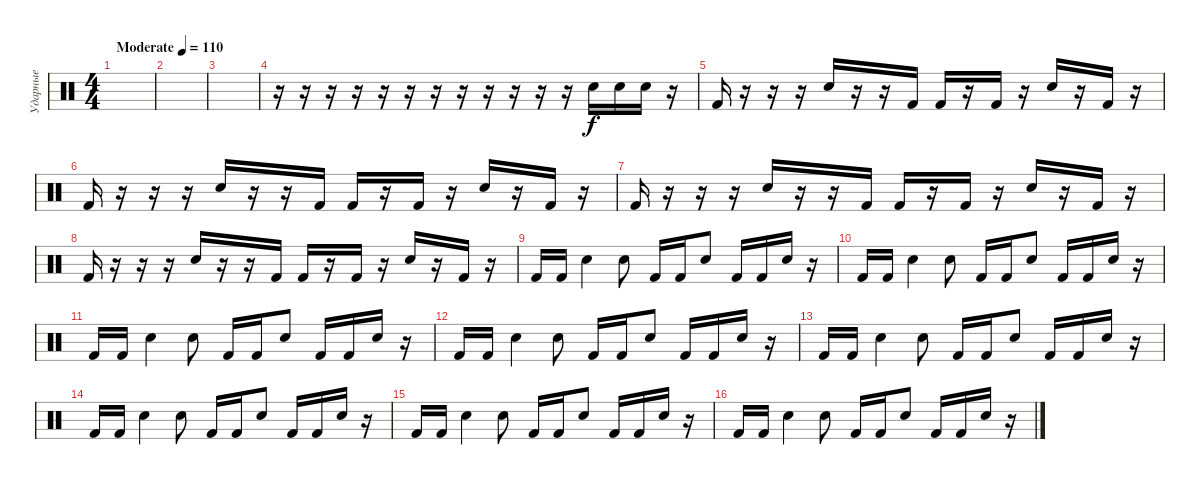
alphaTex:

\track ("Ударные" "Ударные") {instrument percussion}
\staff {score}
\articulation defaults
\ts (4 4)
\tempo (110 "Moderate")
\clef neutral
\ks c
|
|
|
r.16 r.16 r.16 r.16 r.16 r.16 r.16 r.16 r.16 r.16 r.16 r.16 "Electric Snare (hit)".16 "Electric Snare (hit)".16 "Electric Snare (hit)".16 r.16 |
"Kick (hit) 2".16 r.16 r.16 r.16 "Electric Snare (hit)".16 r.16 r.16 "Kick (hit) 2".16 "Kick (hit) 2".16 r.16 "Kick (hit) 2".16 r.16 "Electric Snare (hit)".16 r.16 "Kick (hit) 2".16 r.16 |
"Kick (hit) 2".16 r.16 r.16 r.16 "Electric Snare (hit)".16 r.16 r.16 "Kick (hit) 2".16 "Kick (hit) 2".16 r.16 "Kick (hit) 2".16 r.16 "Electric Snare (hit)".16 r.16 "Kick (hit) 2".16 r.16 |
"Kick (hit) 2".16 r.16 r.16 r.16 "Electric Snare (hit)".16 r.16 r.16 "Kick (hit) 2".16 "Kick (hit) 2".16 r.16 "Kick (hit) 2".16 r.16 "Electric Snare (hit)".16 r.16 "Kick (hit) 2".16 r.16 |
"Kick (hit) 2".16 r.16 r.16 r.16 "Electric Snare (hit)".16 r.16 r.16 "Kick (hit) 2".16 "Kick (hit) 2".16 r.16 "Kick (hit) 2".16 r.16 "Electric Snare (hit)".16 r.16 "Kick (hit) 2".16 r.16 |
"Kick (hit) 2".16 "Kick (hit) 2".16 "Electric Snare (hit)".4 "Electric Snare (hit)".8 "Kick (hit) 2".16 "Kick (hit) 2".16 "Electric Snare (hit)".8 "Kick (hit) 2".16 "Kick (hit) 2".16 "Electric Snare (hit)".16 r.16 |
"Kick (hit) 2".16 "Kick (hit) 2".16 "Electric Snare (hit)".4 "Electric Snare (hit)".8 "Kick (hit) 2".16 "Kick (hit) 2".16 "Electric Snare (hit)".8 "Kick (hit) 2".16 "Kick (hit) 2".16 "Electric Snare (hit)".16 r.16 |
"Kick (hit) 2".16 "Kick (hit) 2".16 "Electric Snare (hit)".4 "Electric Snare (hit)".8 "Kick (hit) 2".16 "Kick (hit) 2".16 "Electric Snare (hit)".8 "Kick (hit) 2".16 "Kick (hit) 2".16 "Electric Snare (hit)".16 r.16 |
"Kick (hit) 2".16 "Kick (hit) 2".16 "Electric Snare (hit)".4 "Electric Snare (hit)".8 "Kick (hit) 2".16 "Kick (hit) 2".16 "Electric Snare (hit)".8 "Kick (hit) 2".16 "Kick (hit) 2".16 "Electric Snare (hit)".16 r.16 |
"Kick (hit) 2".16 "Kick (hit) 2".16 "Electric Snare (hit)".4 "Electric Snare (hit)".8 "Kick (hit) 2".16 "Kick (hit) 2".16 "Electric Snare (hit)".8 "Kick (hit) 2".16 "Kick (hit) 2".16 "Electric Snare (hit)".16 r.16 |
"Kick (hit) 2".16 "Kick (hit) 2".16 "Electric Snare (hit)".4 "Electric Snare (hit)".8 "Kick (hit) 2".16 "Kick (hit) 2".16 "Electric Snare (hit)".8 "Kick (hit) 2".16 "Kick (hit) 2".16 "Electric Snare (hit)".16 r.16 |
"Kick (hit) 2".16 "Kick (hit) 2".16 "Electric Snare (hit)".4 "Electric Snare (hit)".8 "Kick (hit) 2".16 "Kick (hit) 2".16 "Electric Snare (hit)".8 "Kick (hit) 2".16 "Kick (hit) 2".16 "Electric Snare (hit)".16 r.16 |
"Kick (hit) 2".16 "Kick (hit) 2".16 "Electric Snare (hit)".4 "Electric Snare (hit)".8 "Kick (hit) 2".16 "Kick (hit) 2".16 "Electric Snare (hit)".8 "Kick (hit) 2".16 "Kick (hit) 2".16 "Electric Snare (hit)".16 r.16
